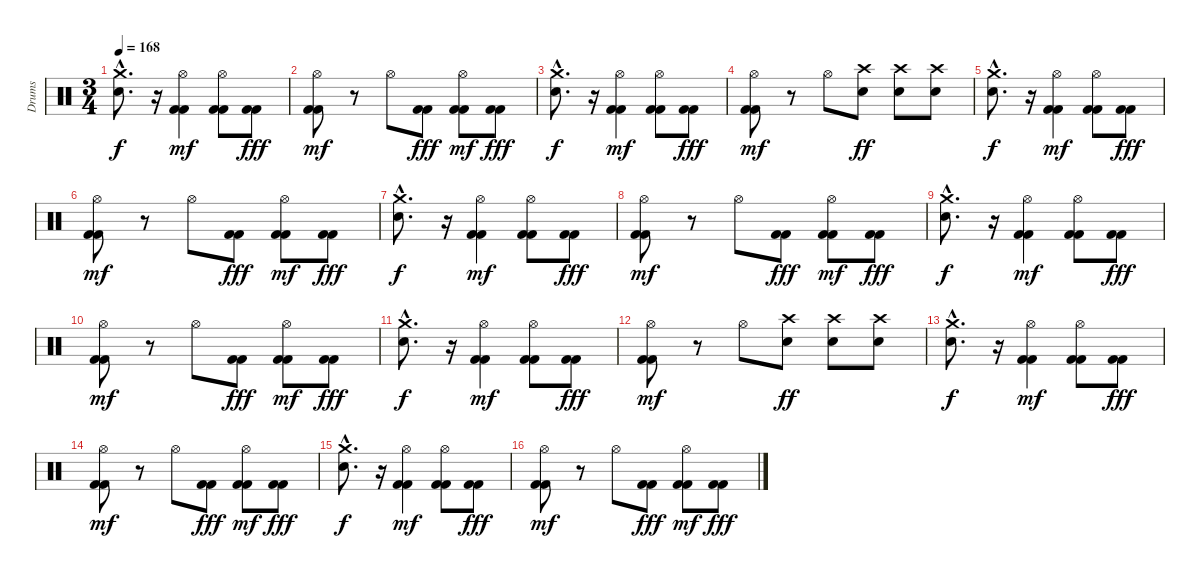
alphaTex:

\track ("Drums" "Drums") {instrument percussion}
\staff {score}
\articulation defaults
\ts (3 4)
\tempo 168
\clef neutral
\ks c
("Crash medium (hit)"{hac} "Electric Snare (hit)"{hac}).8{d dy f} r.16 ("Kick (hit) 2" "Kick (hit) 2" "Hi-Hat (open)").4{dy mf} ("Kick (hit) 2" "Kick (hit) 2" "Hi-Hat (open)").8 ("Kick (hit) 2" "Kick (hit) 2").8{dy fff} |
("Kick (hit) 2" "Kick (hit) 2" "Hi-Hat (open)").8{dy mf} r.8 "Hi-Hat (open)".8 ("Kick (hit) 2" "Kick (hit) 2").8{dy fff} ("Kick (hit) 2" "Kick (hit) 2" "Hi-Hat (open)").8{dy mf} ("Kick (hit) 2" "Kick (hit) 2").8{dy fff} |
("Crash medium (hit)"{hac} "Electric Snare (hit)"{hac}).8{d dy f} r.16 ("Kick (hit) 2" "Kick (hit) 2" "Hi-Hat (open)").4{dy mf} ("Kick (hit) 2" "Kick (hit) 2" "Hi-Hat (open)").8 ("Kick (hit) 2" "Kick (hit) 2").8{dy fff} |
("Kick (hit) 2" "Kick (hit) 2" "Hi-Hat (open)").8{dy mf} r.8 "Hi-Hat (open)".8 ("Crash high (hit)" "Electric Snare (hit)").8{dy ff} ("Crash high (hit)" "Electric Snare (hit)").8 ("Crash high (hit)" "Electric Snare (hit)").8 |
("Crash medium (hit)"{hac} "Electric Snare (hit)"{hac}).8{d dy f} r.16 ("Kick (hit) 2" "Kick (hit) 2" "Hi-Hat (open)").4{dy mf} ("Kick (hit) 2" "Kick (hit) 2" "Hi-Hat (open)").8 ("Kick (hit) 2" "Kick (hit) 2").8{dy fff} |
("Kick (hit) 2" "Kick (hit) 2" "Hi-Hat (open)").8{dy mf} r.8 "Hi-Hat (open)".8 ("Kick (hit) 2" "Kick (hit) 2").8{dy fff} ("Kick (hit) 2" "Kick (hit) 2" "Hi-Hat (open)").8{dy mf} ("Kick (hit) 2" "Kick (hit) 2").8{dy fff} |
("Crash medium (hit)"{hac} "Electric Snare (hit)"{hac}).8{d dy f} r.16 ("Kick (hit) 2" "Kick (hit) 2" "Hi-Hat (open)").4{dy mf} ("Kick (hit) 2" "Kick (hit) 2" "Hi-Hat (open)").8 ("Kick (hit) 2" "Kick (hit) 2").8{dy fff} |
("Kick (hit) 2" "Kick (hit) 2" "Hi-Hat (open)").8{dy mf} r.8 "Hi-Hat (open)".8 ("Kick (hit) 2" "Kick (hit) 2").8{dy fff} ("Kick (hit) 2" "Kick (hit) 2" "Hi-Hat (open)").8{dy mf} ("Kick (hit) 2" "Kick (hit) 2").8{dy fff} |
("Crash medium (hit)"{hac} "Electric Snare (hit)"{hac}).8{d dy f} r.16 ("Kick (hit) 2" "Kick (hit) 2" "Hi-Hat (open)").4{dy mf} ("Kick (hit) 2" "Kick (hit) 2" "Hi-Hat (open)").8 ("Kick (hit) 2" "Kick (hit) 2").8{dy fff} |
("Kick (hit) 2" "Kick (hit) 2" "Hi-Hat (open)").8{dy mf} r.8 "Hi-Hat (open)".8 ("Kick (hit) 2" "Kick (hit) 2").8{dy fff} ("Kick (hit) 2" "Kick (hit) 2" "Hi-Hat (open)").8{dy mf} ("Kick (hit) 2" "Kick (hit) 2").8{dy fff} |
("Crash medium (hit)"{hac} "Electric Snare (hit)"{hac}).8{d dy f} r.16 ("Kick (hit) 2" "Kick (hit) 2" "Hi-Hat (open)").4{dy mf} ("Kick (hit) 2" "Kick (hit) 2" "Hi-Hat (open)").8 ("Kick (hit) 2" "Kick (hit) 2").8{dy fff} |
("Kick (hit) 2" "Kick (hit) 2" "Hi-Hat (open)").8{dy mf} r.8 "Hi-Hat (open)".8 ("Crash high (hit)" "Electric Snare (hit)").8{dy ff} ("Crash high (hit)" "Electric Snare (hit)").8 ("Crash high (hit)" "Electric Snare (hit)").8 |
("Crash medium (hit)"{hac} "Electric Snare (hit)"{hac}).8{d dy f} r.16 ("Kick (hit) 2" "Kick (hit) 2" "Hi-Hat (open)").4{dy mf} ("Kick (hit) 2" "Kick (hit) 2" "Hi-Hat (open)").8 ("Kick (hit) 2" "Kick (hit) 2").8{dy fff} |
("Kick (hit) 2" "Kick (hit) 2" "Hi-Hat (open)").8{dy mf} r.8 "Hi-Hat (open)".8 ("Kick (hit) 2" "Kick (hit) 2").8{dy fff} ("Kick (hit) 2" "Kick (hit) 2" "Hi-Hat (open)").8{dy mf} ("Kick (hit) 2" "Kick (hit) 2").8{dy fff} |
("Crash medium (hit)"{hac} "Electric Snare (hit)"{hac}).8{d dy f} r.16 ("Kick (hit) 2" "Kick (hit) 2" "Hi-Hat (open)").4{dy mf} ("Kick (hit) 2" "Kick (hit) 2" "Hi-Hat (open)").8 ("Kick (hit) 2" "Kick (hit) 2").8{dy fff} |
("Kick (hit) 2" "Kick (hit) 2" "Hi-Hat (open)").8{dy mf} r.8 "Hi-Hat (open)".8 ("Kick (hit) 2" "Kick (hit) 2").8{dy fff} ("Kick (hit) 2" "Kick (hit) 2" "Hi-Hat (open)").8{dy mf} ("Kick (hit) 2" "Kick (hit) 2").8{dy fff}
